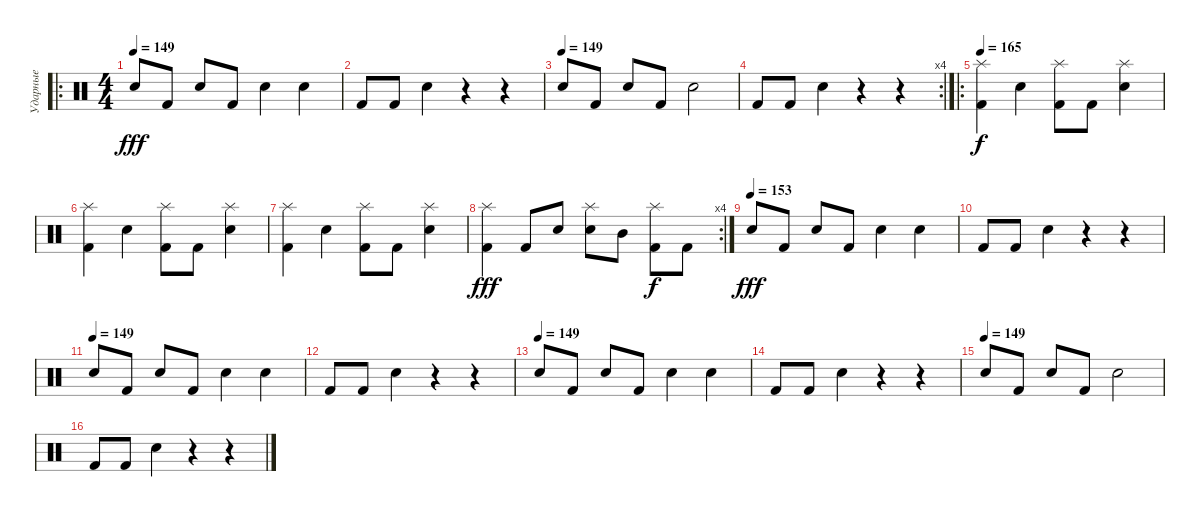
\track ("Ударные" "Ударные") {instrument percussion}
\staff {score}
\articulation defaults
\ro
\ts (4 4)
\tempo 149
\clef neutral
\ks c "Snare (hit) 2".8{dy fff} "Kick (hit) 2".8 "Snare (hit) 2".8 "Kick (hit) 2".8 "Snare (hit) 2".4 "Snare (hit) 2".4
|
"Kick (hit) 2".8 "Kick (hit) 2".8 "Snare (hit) 2".4 r.4 r.4 |
\tempo (149)
"Snare (hit) 2".8 "Kick (hit) 2".8 "Snare (hit) 2".8 "Kick (hit) 2".8 "Snare (hit) 2".2 |
\rc 4 "Kick (hit) 2".8 "Kick (hit) 2".8 "Snare (hit) 2".4
r.4 r.4 |
\ro
\tempo 165
("Kick (hit) 2" "Splash (hit)").4{dy f} "Snare (hit) 2".4 ("Kick (hit) 2" "Splash (hit)").8 "Kick (hit) 2".8 ("Snare (hit) 2" "Splash (hit)").4 |
("Kick (hit) 2" "Splash (hit)").4 "Snare (hit) 2".4 ("Kick (hit) 2" "Splash (hit)").8 "Kick (hit) 2".8 ("Snare (hit) 2" "Splash (hit)").4 |
("Kick (hit) 2" "Splash (hit)").4 "Snare (hit) 2".4 ("Kick (hit) 2" "Splash (hit)").8 "Kick (hit) 2".8 ("Snare (hit) 2" "Splash (hit)").4 |
\rc 4
("Kick (hit) 2" "Splash (hit)").4{dy fff} "Kick (hit) 2".8 "Snare (hit) 2".8 ("Snare (hit) 2" "Splash (hit)").8 "Mid Tom (hit)".8 ("Kick (hit) 2" "Splash (hit)").8{dy f} "Kick (hit) 2".8 |
\tempo (153)
"Snare (hit) 2".8{dy fff} "Kick (hit) 2".8 "Snare (hit) 2".8 "Kick (hit) 2".8 "Snare (hit) 2".4 "Snare (hit) 2".4 |
"Kick (hit) 2".8 "Kick (hit) 2".8 "Snare (hit) 2".4 r.4 r.4 |
\tempo (149)
"Snare (hit) 2".8 "Kick (hit) 2".8 "Snare (hit) 2".8 "Kick (hit) 2".8 "Snare (hit) 2".4 "Snare (hit) 2".4 |
"Kick (hit) 2".8 "Kick (hit) 2".8 "Snare (hit) 2".4 r.4 r.4 |
\tempo (149)
"Snare (hit) 2".8 "Kick (hit) 2".8 "Snare (hit) 2".8 "Kick (hit) 2".8 "Snare (hit) 2".4 "Snare (hit) 2".4 |
"Kick (hit) 2".8 "Kick (hit) 2".8 "Snare (hit) 2".4 r.4 r.4 |
\tempo (149)
"Snare (hit) 2".8 "Kick (hit) 2".8 "Snare (hit) 2".8 "Kick (hit) 2".8 "Snare (hit) 2".2 |
"Kick (hit) 2".8 "Kick (hit) 2".8 "Snare (hit) 2".4{volume 12} r.4 r.4
